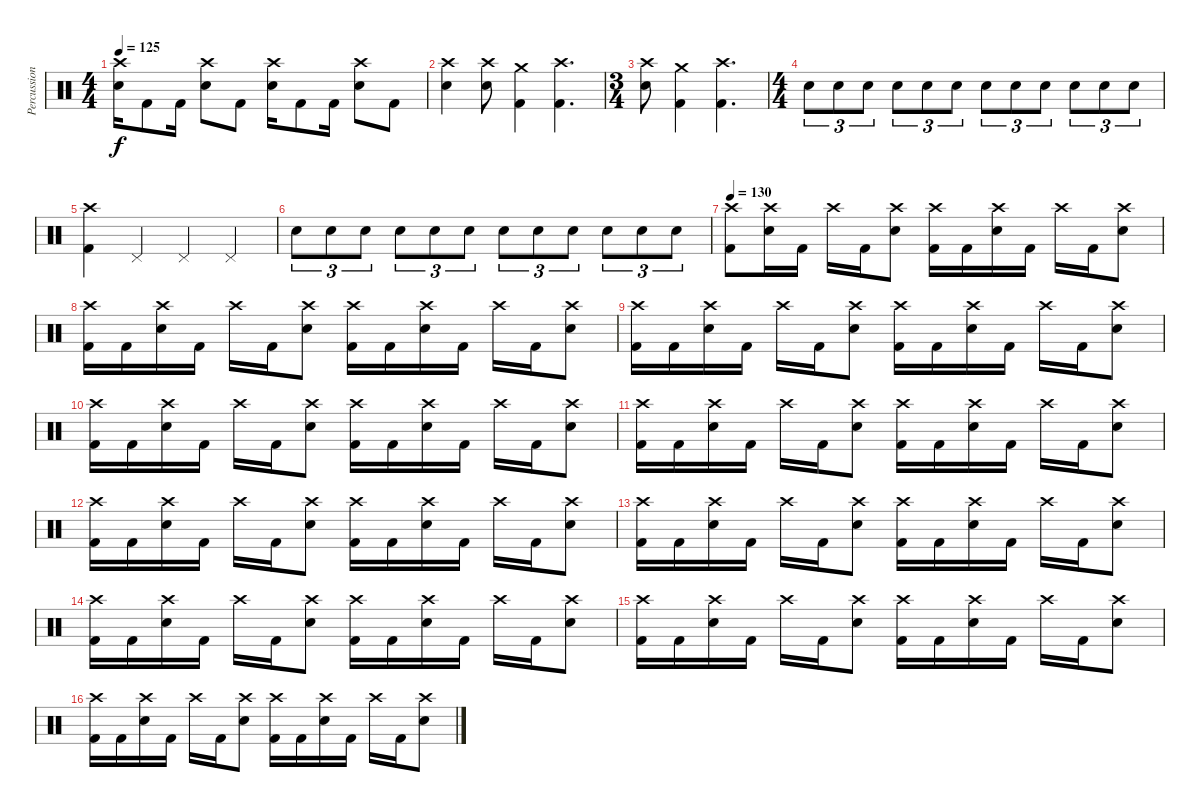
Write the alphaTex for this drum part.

\track ("Percussion" "Percussion") {instrument percussion}
\staff {score}
\articulation defaults
\ts (4 4)
\tempo 125
\clef neutral
\ks c
("Electric Snare (hit)" "Crash high (hit)").16{dy f} "Kick (hit) 2".8 "Kick (hit) 2".16 ("Electric Snare (hit)" "Crash high (hit)").8 "Kick (hit) 2".8 ("Electric Snare (hit)" "Crash high (hit)").16 "Kick (hit) 2".8 "Kick (hit) 2".16 ("Electric Snare (hit)" "Crash high (hit)").8 "Kick (hit) 2".8 |
("Electric Snare (hit)" "Crash high (hit)").4 ("Electric Snare (hit)" "Crash high (hit)").8 ("Kick (hit) 2" "Crash medium (hit)").4 ("Kick (hit) 2" "Crash high (hit)").4{d} |
\ts (3 4)
("Electric Snare (hit)" "Crash high (hit)").8 ("Kick (hit) 2" "Crash medium (hit)").4 ("Kick (hit) 2" "Crash high (hit)").4{d} |
\ts (4 4)
"Electric Snare (hit)".8{tu (3 2)} "Electric Snare (hit)".8{tu (3 2)} "Electric Snare (hit)".8{tu (3 2)} "Electric Snare (hit)".8{tu (3 2)} "Electric Snare (hit)".8{tu (3 2)} "Electric Snare (hit)".8{tu (3 2)} "Electric Snare (hit)".8{tu (3 2)} "Electric Snare (hit)".8{tu (3 2)} "Electric Snare (hit)".8{tu (3 2)} "Electric Snare (hit)".8{tu (3 2)} "Electric Snare (hit)".8{tu (3 2)} "Electric Snare (hit)".8{tu (3 2)} |
("Kick (hit) 2" "Crash high (hit)").4 "Pedal Hi-Hat (hit)".4 "Pedal Hi-Hat (hit)".4 "Pedal Hi-Hat (hit)".4 |
"Electric Snare (hit)".8{tu (3 2)} "Electric Snare (hit)".8{tu (3 2)} "Electric Snare (hit)".8{tu (3 2)} "Electric Snare (hit)".8{tu (3 2)} "Electric Snare (hit)".8{tu (3 2)} "Electric Snare (hit)".8{tu (3 2)} "Electric Snare (hit)".8{tu (3 2)} "Electric Snare (hit)".8{tu (3 2)} "Electric Snare (hit)".8{tu (3 2)} "Electric Snare (hit)".8{tu (3 2)} "Electric Snare (hit)".8{tu (3 2)} "Electric Snare (hit)".8{tu (3 2)} |
\tempo 130
("Kick (hit) 2" "Crash high (hit)").8 ("Electric Snare (hit)" "Crash high (hit)").16 "Kick (hit) 2".16 "Crash high (hit)".16 "Kick (hit) 2".16 ("Electric Snare (hit)" "Crash high (hit)").8 ("Kick (hit) 2" "Crash high (hit)").16 "Kick (hit) 2".16 ("Electric Snare (hit)" "Crash high (hit)").16 "Kick (hit) 2".16 "Crash high (hit)".16 "Kick (hit) 2".16 ("Electric Snare (hit)" "Crash high (hit)").8 |
("Kick (hit) 2" "Crash high (hit)").16 "Kick (hit) 2".16 ("Electric Snare (hit)" "Crash high (hit)").16 "Kick (hit) 2".16 "Crash high (hit)".16 "Kick (hit) 2".16 ("Electric Snare (hit)" "Crash high (hit)").8 ("Kick (hit) 2" "Crash high (hit)").16 "Kick (hit) 2".16 ("Electric Snare (hit)" "Crash high (hit)").16 "Kick (hit) 2".16 "Crash high (hit)".16 "Kick (hit) 2".16 ("Electric Snare (hit)" "Crash high (hit)").8 |
("Kick (hit) 2" "Crash high (hit)").16 "Kick (hit) 2".16 ("Electric Snare (hit)" "Crash high (hit)").16 "Kick (hit) 2".16 "Crash high (hit)".16 "Kick (hit) 2".16 ("Electric Snare (hit)" "Crash high (hit)").8 ("Kick (hit) 2" "Crash high (hit)").16 "Kick (hit) 2".16 ("Electric Snare (hit)" "Crash high (hit)").16 "Kick (hit) 2".16 "Crash high (hit)".16 "Kick (hit) 2".16 ("Electric Snare (hit)" "Crash high (hit)").8 |
("Kick (hit) 2" "Crash high (hit)").16 "Kick (hit) 2".16 ("Electric Snare (hit)" "Crash high (hit)").16 "Kick (hit) 2".16 "Crash high (hit)".16 "Kick (hit) 2".16 ("Electric Snare (hit)" "Crash high (hit)").8 ("Kick (hit) 2" "Crash high (hit)").16 "Kick (hit) 2".16 ("Electric Snare (hit)" "Crash high (hit)").16 "Kick (hit) 2".16 "Crash high (hit)".16 "Kick (hit) 2".16 ("Electric Snare (hit)" "Crash high (hit)").8 |
("Kick (hit) 2" "Crash high (hit)").16 "Kick (hit) 2".16 ("Electric Snare (hit)" "Crash high (hit)").16 "Kick (hit) 2".16 "Crash high (hit)".16 "Kick (hit) 2".16 ("Electric Snare (hit)" "Crash high (hit)").8 ("Kick (hit) 2" "Crash high (hit)").16 "Kick (hit) 2".16 ("Electric Snare (hit)" "Crash high (hit)").16 "Kick (hit) 2".16 "Crash high (hit)".16 "Kick (hit) 2".16 ("Electric Snare (hit)" "Crash high (hit)").8 |
("Kick (hit) 2" "Crash high (hit)").16 "Kick (hit) 2".16 ("Electric Snare (hit)" "Crash high (hit)").16 "Kick (hit) 2".16 "Crash high (hit)".16 "Kick (hit) 2".16 ("Electric Snare (hit)" "Crash high (hit)").8 ("Kick (hit) 2" "Crash high (hit)").16 "Kick (hit) 2".16 ("Electric Snare (hit)" "Crash high (hit)").16 "Kick (hit) 2".16 "Crash high (hit)".16 "Kick (hit) 2".16 ("Electric Snare (hit)" "Crash high (hit)").8 |
("Kick (hit) 2" "Crash high (hit)").16 "Kick (hit) 2".16 ("Electric Snare (hit)" "Crash high (hit)").16 "Kick (hit) 2".16 "Crash high (hit)".16 "Kick (hit) 2".16 ("Electric Snare (hit)" "Crash high (hit)").8 ("Kick (hit) 2" "Crash high (hit)").16 "Kick (hit) 2".16 ("Electric Snare (hit)" "Crash high (hit)").16 "Kick (hit) 2".16 "Crash high (hit)".16 "Kick (hit) 2".16 ("Electric Snare (hit)" "Crash high (hit)").8 |
("Kick (hit) 2" "Crash high (hit)").16 "Kick (hit) 2".16 ("Electric Snare (hit)" "Crash high (hit)").16 "Kick (hit) 2".16 "Crash high (hit)".16 "Kick (hit) 2".16 ("Electric Snare (hit)" "Crash high (hit)").8 ("Kick (hit) 2" "Crash high (hit)").16 "Kick (hit) 2".16 ("Electric Snare (hit)" "Crash high (hit)").16 "Kick (hit) 2".16 "Crash high (hit)".16 "Kick (hit) 2".16 ("Electric Snare (hit)" "Crash high (hit)").8 |
("Kick (hit) 2" "Crash high (hit)").16 "Kick (hit) 2".16 ("Electric Snare (hit)" "Crash high (hit)").16 "Kick (hit) 2".16 "Crash high (hit)".16 "Kick (hit) 2".16 ("Electric Snare (hit)" "Crash high (hit)").8 ("Kick (hit) 2" "Crash high (hit)").16 "Kick (hit) 2".16 ("Electric Snare (hit)" "Crash high (hit)").16 "Kick (hit) 2".16 "Crash high (hit)".16 "Kick (hit) 2".16 ("Electric Snare (hit)" "Crash high (hit)").8 |
("Kick (hit) 2" "Crash high (hit)").16 "Kick (hit) 2".16 ("Electric Snare (hit)" "Crash high (hit)").16 "Kick (hit) 2".16 "Crash high (hit)".16 "Kick (hit) 2".16 ("Electric Snare (hit)" "Crash high (hit)").8 ("Kick (hit) 2" "Crash high (hit)").16 "Kick (hit) 2".16 ("Electric Snare (hit)" "Crash high (hit)").16 "Kick (hit) 2".16 "Crash high (hit)".16 "Kick (hit) 2".16 ("Electric Snare (hit)" "Crash high (hit)").8
